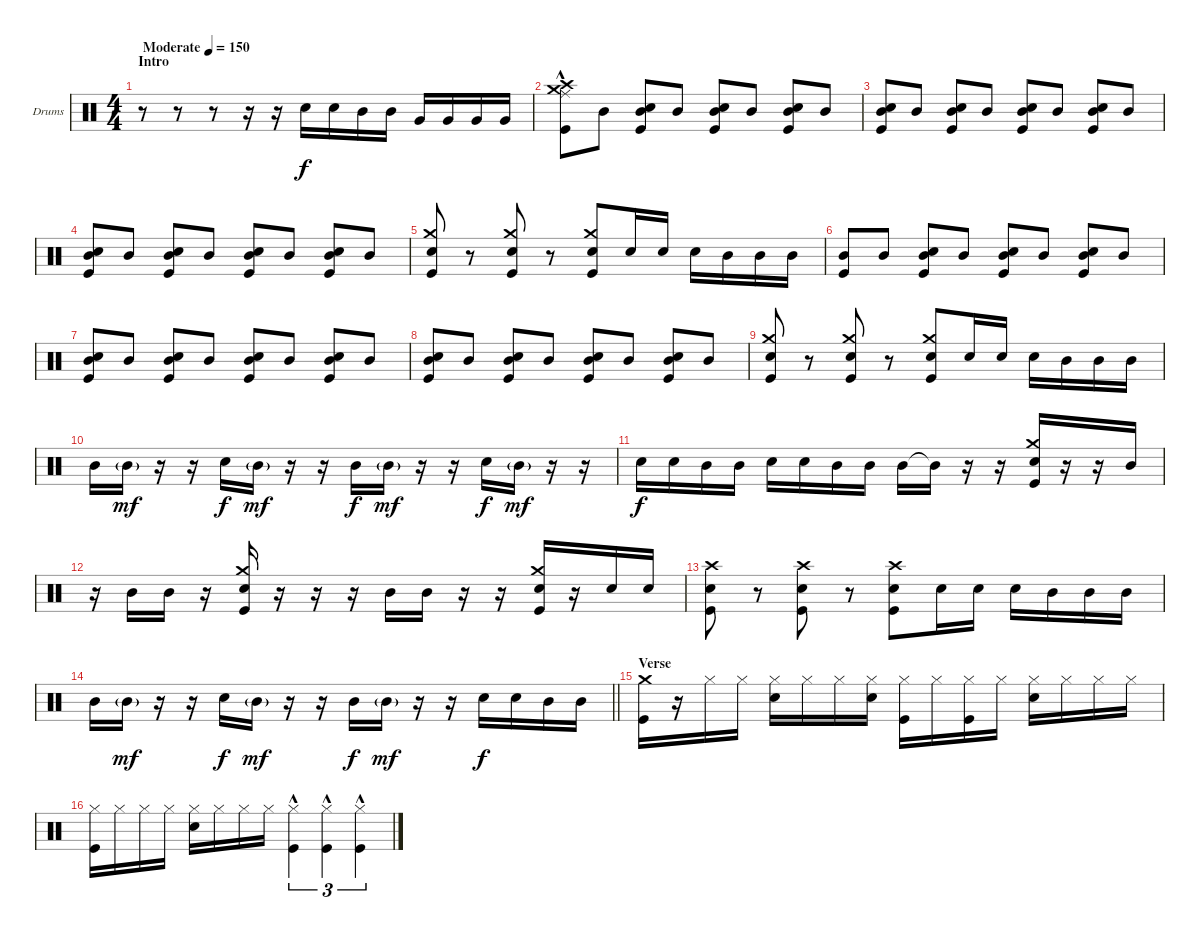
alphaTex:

\bracketExtendMode groupsimilarinstruments
\firstSystemTrackNameOrientation horizontal
\otherSystemsTrackNameOrientation horizontal
\track ("Drumkit" "Drums") {instrument percussion}
\staff {score}
\articulation defaults
\ts (4 4)
\beaming (8 2 2 2 2)
\section ("" "Intro")
\tempo (150 "Moderate")
\clef neutral
\ks c
r.8{dy f} r.8 r.8 r.16 r.16 "Snare (hit) 2".16 "Snare (hit) 2".16 "Mid Tom (hit)".16 "Mid Tom (hit)".16 "Very Low Tom (hit)".16 "Very Low Tom (hit)".16 "Very Low Tom (hit)".16 "Very Low Tom (hit)".16 |
("Crash medium (hit)"{hac} "Kick (hit)" "Crash high (hit)" "Ride (middle)").8 "Mid Tom (hit)".8 ("Snare (hit) 2" "Mid Tom (hit)" "Kick (hit)").8 "Mid Tom (hit)".8 ("Snare (hit) 2" "Mid Tom (hit)" "Kick (hit)").8 "Mid Tom (hit)".8 ("Snare (hit) 2" "Mid Tom (hit)" "Kick (hit)").8 "Mid Tom (hit)".8 |
("Snare (hit) 2" "Mid Tom (hit)" "Kick (hit)").8 "Mid Tom (hit)".8 ("Snare (hit) 2" "Mid Tom (hit)" "Kick (hit)").8 "Mid Tom (hit)".8 ("Snare (hit) 2" "Mid Tom (hit)" "Kick (hit)").8 "Mid Tom (hit)".8 ("Snare (hit) 2" "Mid Tom (hit)" "Kick (hit)").8 "Mid Tom (hit)".8 |
("Snare (hit) 2" "Mid Tom (hit)" "Kick (hit)").8 "Mid Tom (hit)".8 ("Snare (hit) 2" "Mid Tom (hit)" "Kick (hit)").8 "Mid Tom (hit)".8 ("Snare (hit) 2" "Mid Tom (hit)" "Kick (hit)").8 "Mid Tom (hit)".8 ("Snare (hit) 2" "Mid Tom (hit)" "Kick (hit)").8 "Mid Tom (hit)".8 |
("Kick (hit)" "Snare (hit) 2" "Crash medium (hit)").8 r.8 ("Kick (hit)" "Snare (hit) 2" "Crash medium (hit)").8 r.8 ("Kick (hit)" "Snare (hit) 2" "Crash medium (hit)").8 "Snare (hit) 2".16 "Snare (hit) 2".16 "Snare (hit) 2".16 "Mid Tom (hit)".16 "Mid Tom (hit)".16 "Mid Tom (hit)".16 |
("Mid Tom (hit)" "Kick (hit)").8 "Mid Tom (hit)".8 ("Snare (hit) 2" "Mid Tom (hit)" "Kick (hit)").8 "Mid Tom (hit)".8 ("Snare (hit) 2" "Mid Tom (hit)" "Kick (hit)").8 "Mid Tom (hit)".8 ("Snare (hit) 2" "Mid Tom (hit)" "Kick (hit)").8 "Mid Tom (hit)".8 |
("Snare (hit) 2" "Mid Tom (hit)" "Kick (hit)").8 "Mid Tom (hit)".8 ("Snare (hit) 2" "Mid Tom (hit)" "Kick (hit)").8 "Mid Tom (hit)".8 ("Snare (hit) 2" "Mid Tom (hit)" "Kick (hit)").8 "Mid Tom (hit)".8 ("Snare (hit) 2" "Mid Tom (hit)" "Kick (hit)").8 "Mid Tom (hit)".8 |
("Snare (hit) 2" "Mid Tom (hit)" "Kick (hit)").8 "Mid Tom (hit)".8 ("Snare (hit) 2" "Mid Tom (hit)" "Kick (hit)").8 "Mid Tom (hit)".8 ("Snare (hit) 2" "Mid Tom (hit)" "Kick (hit)").8 "Mid Tom (hit)".8 ("Snare (hit) 2" "Mid Tom (hit)" "Kick (hit)").8 "Mid Tom (hit)".8 |
("Kick (hit)" "Snare (hit) 2" "Crash medium (hit)").8 r.8 ("Kick (hit)" "Snare (hit) 2" "Crash medium (hit)").8 r.8 ("Kick (hit)" "Snare (hit) 2" "Crash medium (hit)").8 "Snare (hit) 2".16 "Snare (hit) 2".16 "Snare (hit) 2".16 "Mid Tom (hit)".16 "Mid Tom (hit)".16 "Mid Tom (hit)".16 |
"Mid Tom (hit)".16 "Mid Tom (hit)"{g}.16{dy mf} r.16 r.16 "Snare (hit) 2".16{dy f} "Mid Tom (hit)"{g}.16{dy mf} r.16 r.16 "Mid Tom (hit)".16{dy f} "Mid Tom (hit)"{g}.16{dy mf} r.16 r.16 "Snare (hit) 2".16{dy f} "Mid Tom (hit)"{g}.16{dy mf} r.16 r.16 |
"Snare (hit) 2".16{dy f} "Snare (hit) 2".16 "Mid Tom (hit)".16 "Mid Tom (hit)".16 "Snare (hit) 2".16 "Snare (hit) 2".16 "Mid Tom (hit)".16 "Mid Tom (hit)".16 "Mid Tom (hit)".16 "Mid Tom (hit)"{t}.16 r.16 r.16 ("Crash medium (hit)" "Snare (hit) 2" "Kick (hit)").16 r.16 r.16 "Mid Tom (hit)".16 |
r.16 "Mid Tom (hit)".16 "Mid Tom (hit)".16 r.16 ("Crash medium (hit)" "Kick (hit)" "Snare (hit) 2").16 r.16 r.16 r.16 "Mid Tom (hit)".16 "Mid Tom (hit)".16 r.16 r.16 ("Crash medium (hit)" "Kick (hit)" "Snare (hit) 2").16 r.16 "Snare (hit) 2".16 "Snare (hit) 2".16 |
("Kick (hit)" "Snare (hit) 2" "Crash high (hit)").8 r.8 ("Kick (hit)" "Snare (hit) 2" "Crash high (hit)").8 r.8 ("Kick (hit)" "Snare (hit) 2" "Crash high (hit)").8 "Snare (hit) 2".16 "Snare (hit) 2".16 "Snare (hit) 2".16 "Mid Tom (hit)".16 "Mid Tom (hit)".16 "Mid Tom (hit)".16 |
\barLineRight lightlight "Mid Tom (hit)".16 "Mid Tom (hit)"{g}.16{dy mf}
r.16 r.16 "Snare (hit) 2".16{dy f} "Mid Tom (hit)"{g}.16{dy mf} r.16 r.16 "Mid Tom (hit)".16{dy f} "Mid Tom (hit)"{g}.16{dy mf} r.16 r.16 "Snare (hit) 2".16{dy f} "Snare (hit) 2".16 "Mid Tom (hit)".16 "Mid Tom (hit)".16 |
\section ("" "Verse")
("Crash medium (hit)" "Kick (hit)").16 r.16 "Hi-Hat (closed)".16 "Hi-Hat (closed)".16 ("Hi-Hat (closed)" "Snare (hit) 2").16 "Hi-Hat (closed)".16 "Hi-Hat (closed)".16 ("Hi-Hat (closed)" "Snare (hit) 2").16 ("Hi-Hat (closed)" "Kick (hit)").16 "Hi-Hat (closed)".16 ("Hi-Hat (closed)" "Kick (hit)").16 "Hi-Hat (closed)".16 ("Hi-Hat (closed)" "Snare (hit) 2").16 "Hi-Hat (closed)".16 "Hi-Hat (closed)".16 "Hi-Hat (closed)".16 |
("Hi-Hat (closed)" "Kick (hit)").16 "Hi-Hat (closed)".16 "Hi-Hat (closed)".16 "Hi-Hat (closed)".16 ("Hi-Hat (closed)" "Snare (hit) 2").16 "Hi-Hat (closed)".16 "Hi-Hat (closed)".16 "Hi-Hat (closed)".16 ("Kick (hit)" "Hi-Hat (closed)"{hac}).4{tu (3 2)} ("Kick (hit)" "Hi-Hat (closed)"{hac}).4{tu (3 2)} ("Kick (hit)" "Hi-Hat (closed)"{hac}).4{tu (3 2)}
